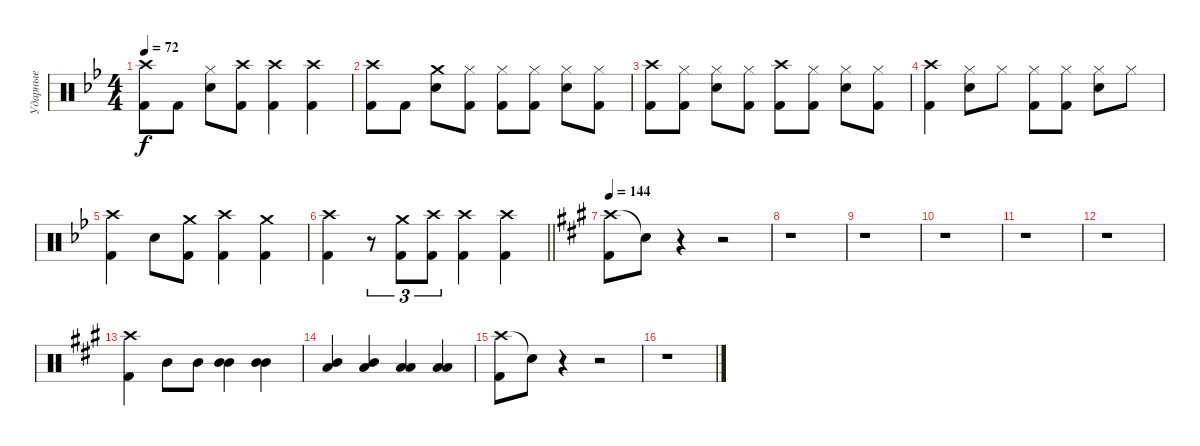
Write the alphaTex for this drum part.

\track ("Ударные" "Ударные") {instrument percussion}
\staff {score}
\articulation defaults
\ts (4 4)
\tempo 72
\clef neutral
\ks bb
("Crash high (hit)" "Kick (hit) 2").8{dy f} "Kick (hit) 2".8 ("Hi-Hat (closed)" "Snare (hit) 2").8 ("Crash high (hit)" "Kick (hit) 2").8 ("Crash high (hit)" "Kick (hit) 2").4 ("Crash high (hit)" "Kick (hit) 2").4 |
("Crash high (hit)" "Kick (hit) 2").8 "Kick (hit) 2".8 ("Crash medium (hit)" "Snare (hit) 2").8 ("Hi-Hat (closed)" "Kick (hit) 2").8 ("Hi-Hat (closed)" "Kick (hit) 2").8 ("Hi-Hat (closed)" "Kick (hit) 2").8 ("Hi-Hat (closed)" "Snare (hit) 2").8 ("Hi-Hat (closed)" "Kick (hit) 2").8 |
("Crash high (hit)" "Kick (hit) 2").8 ("Hi-Hat (closed)" "Kick (hit) 2").8 ("Hi-Hat (closed)" "Snare (hit) 2").8 ("Hi-Hat (closed)" "Kick (hit) 2").8 ("Crash high (hit)" "Kick (hit) 2").8 ("Hi-Hat (closed)" "Kick (hit) 2").8 ("Hi-Hat (closed)" "Snare (hit) 2").8 ("Hi-Hat (closed)" "Kick (hit) 2").8 |
("Crash high (hit)" "Kick (hit) 2").4 ("Hi-Hat (closed)" "Snare (hit) 2").8 "Hi-Hat (closed)".8 ("Hi-Hat (closed)" "Kick (hit) 2").8 ("Hi-Hat (closed)" "Kick (hit) 2").8 ("Hi-Hat (closed)" "Snare (hit) 2").8 "Hi-Hat (closed)".8 |
("Crash high (hit)" "Kick (hit) 2").4 "Snare (hit) 2".8 ("Crash medium (hit)" "Kick (hit) 2").8 ("Crash high (hit)" "Kick (hit) 2").4 ("Crash medium (hit)" "Kick (hit) 2").4 |
\barLineRight lightlight
("Crash high (hit)" "Kick (hit) 2").4 r.8{tu (3 2)} ("Crash medium (hit)" "Kick (hit) 2").8{tu (3 2)} ("Crash high (hit)" "Kick (hit) 2").8{tu (3 2)} ("Crash high (hit)" "Kick (hit) 2").4 ("Crash high (hit)" "Kick (hit) 2").4 |
\tempo 144
\ks a
("Crash high (hit)" "Kick (hit) 2").8 "Snare (hit)"{t}.8 r.4 r.2 |
r.1 |
r.1 |
r.1 |
r.1 |
r.1 |
("Crash high (hit)" "Kick (hit) 2").4 "Mid Tom (hit)".8 "Mid Tom (hit)".8 ("Mid Tom (hit)" "Mid Tom (hit)").4 ("Mid Tom (hit)" "Mid Tom (hit)").4 |
("Mid Tom (hit)" "Low Tom (hit)").4 ("Mid Tom (hit)" "Low Tom (hit)").4 ("Low Tom (hit)" "Low Tom (hit)").4 ("Low Tom (hit)" "Low Tom (hit)").4 |
("Crash high (hit)" "Kick (hit) 2").8 "Snare (hit)"{t}.8 r.4 r.2 |
r.1
